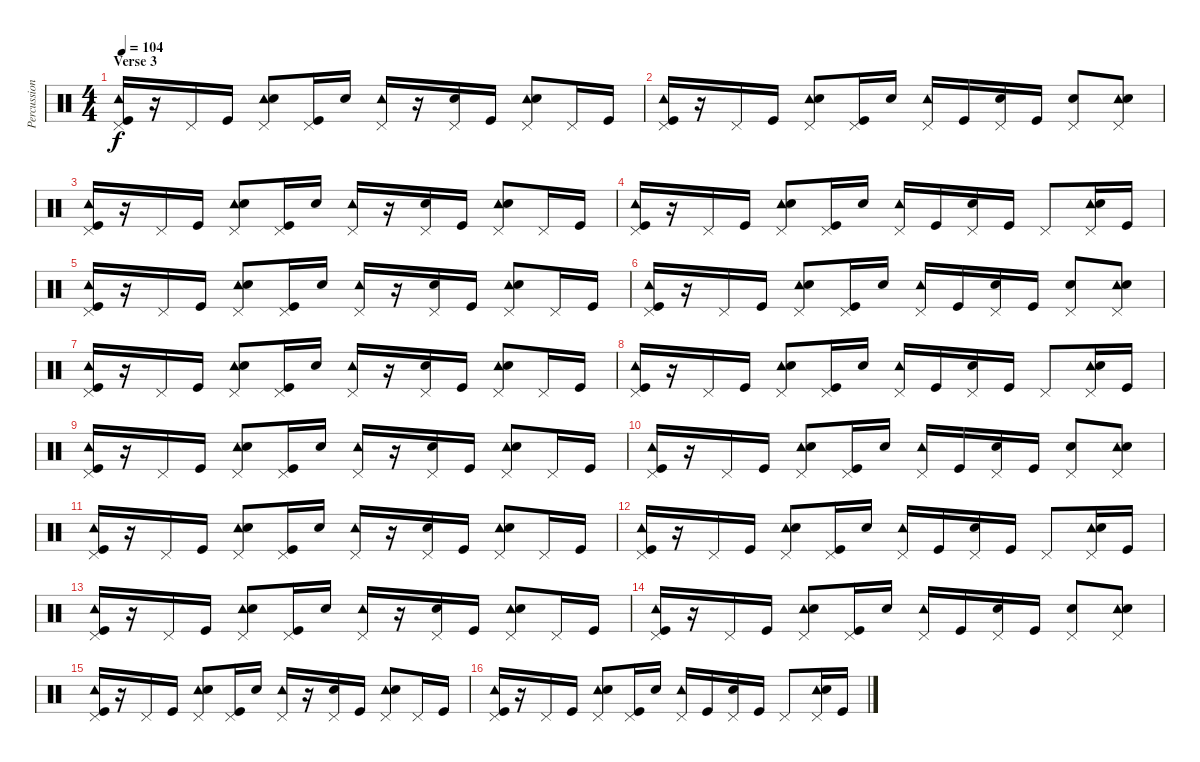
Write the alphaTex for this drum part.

\track ("Percussion" "Percussion") {instrument percussion}
\staff {score}
\articulation defaults
\ts (4 4)
\section ("" "Verse 3")
\tempo 104
\clef neutral
\ks c
("Tambourine (hit)" "Pedal Hi-Hat (hit)" "Kick (hit)").16{dy f} r.16 "Pedal Hi-Hat (hit)".16 "Kick (hit)".16 ("Tambourine (hit)" "Pedal Hi-Hat (hit)" "Snare (hit) 2").8 ("Pedal Hi-Hat (hit)" "Kick (hit)").16 "Snare (hit) 2".16 ("Tambourine (hit)" "Pedal Hi-Hat (hit)").16 r.16 ("Pedal Hi-Hat (hit)" "Snare (hit) 2").16 "Kick (hit)".16 ("Tambourine (hit)" "Pedal Hi-Hat (hit)" "Snare (hit) 2").8 "Pedal Hi-Hat (hit)".16 "Kick (hit)".16 |
("Tambourine (hit)" "Pedal Hi-Hat (hit)" "Kick (hit)").16 r.16 "Pedal Hi-Hat (hit)".16 "Kick (hit)".16 ("Tambourine (hit)" "Pedal Hi-Hat (hit)" "Snare (hit) 2").8 ("Pedal Hi-Hat (hit)" "Kick (hit)").16 "Snare (hit) 2".16 ("Tambourine (hit)" "Pedal Hi-Hat (hit)").16 "Kick (hit)".16 ("Pedal Hi-Hat (hit)" "Snare (hit) 2").16 "Kick (hit)".16 ("Pedal Hi-Hat (hit)" "Snare (hit) 2").8 ("Tambourine (hit)" "Pedal Hi-Hat (hit)" "Snare (hit) 2").8 |
("Tambourine (hit)" "Pedal Hi-Hat (hit)" "Kick (hit)").16 r.16 "Pedal Hi-Hat (hit)".16 "Kick (hit)".16 ("Tambourine (hit)" "Pedal Hi-Hat (hit)" "Snare (hit) 2").8 ("Pedal Hi-Hat (hit)" "Kick (hit)").16 "Snare (hit) 2".16 ("Tambourine (hit)" "Pedal Hi-Hat (hit)").16 r.16 ("Pedal Hi-Hat (hit)" "Snare (hit) 2").16 "Kick (hit)".16 ("Tambourine (hit)" "Pedal Hi-Hat (hit)" "Snare (hit) 2").8 "Pedal Hi-Hat (hit)".16 "Kick (hit)".16 |
("Tambourine (hit)" "Pedal Hi-Hat (hit)" "Kick (hit)").16 r.16 "Pedal Hi-Hat (hit)".16 "Kick (hit)".16 ("Tambourine (hit)" "Pedal Hi-Hat (hit)" "Snare (hit) 2").8 ("Pedal Hi-Hat (hit)" "Kick (hit)").16 "Snare (hit) 2".16 ("Tambourine (hit)" "Pedal Hi-Hat (hit)").16 "Kick (hit)".16 ("Pedal Hi-Hat (hit)" "Snare (hit) 2").16 "Kick (hit)".16 "Pedal Hi-Hat (hit)".8 ("Tambourine (hit)" "Pedal Hi-Hat (hit)" "Snare (hit) 2").16 "Kick (hit)".16 |
("Tambourine (hit)" "Pedal Hi-Hat (hit)" "Kick (hit)").16 r.16 "Pedal Hi-Hat (hit)".16 "Kick (hit)".16 ("Tambourine (hit)" "Pedal Hi-Hat (hit)" "Snare (hit) 2").8 ("Pedal Hi-Hat (hit)" "Kick (hit)").16 "Snare (hit) 2".16 ("Tambourine (hit)" "Pedal Hi-Hat (hit)").16 r.16 ("Pedal Hi-Hat (hit)" "Snare (hit) 2").16 "Kick (hit)".16 ("Tambourine (hit)" "Pedal Hi-Hat (hit)" "Snare (hit) 2").8 "Pedal Hi-Hat (hit)".16 "Kick (hit)".16 |
("Tambourine (hit)" "Pedal Hi-Hat (hit)" "Kick (hit)").16 r.16 "Pedal Hi-Hat (hit)".16 "Kick (hit)".16 ("Tambourine (hit)" "Pedal Hi-Hat (hit)" "Snare (hit) 2").8 ("Pedal Hi-Hat (hit)" "Kick (hit)").16 "Snare (hit) 2".16 ("Tambourine (hit)" "Pedal Hi-Hat (hit)").16 "Kick (hit)".16 ("Pedal Hi-Hat (hit)" "Snare (hit) 2").16 "Kick (hit)".16 ("Pedal Hi-Hat (hit)" "Snare (hit) 2").8 ("Tambourine (hit)" "Pedal Hi-Hat (hit)" "Snare (hit) 2").8 |
("Tambourine (hit)" "Pedal Hi-Hat (hit)" "Kick (hit)").16 r.16 "Pedal Hi-Hat (hit)".16 "Kick (hit)".16 ("Tambourine (hit)" "Pedal Hi-Hat (hit)" "Snare (hit) 2").8 ("Pedal Hi-Hat (hit)" "Kick (hit)").16 "Snare (hit) 2".16 ("Tambourine (hit)" "Pedal Hi-Hat (hit)").16 r.16 ("Pedal Hi-Hat (hit)" "Snare (hit) 2").16 "Kick (hit)".16 ("Tambourine (hit)" "Pedal Hi-Hat (hit)" "Snare (hit) 2").8 "Pedal Hi-Hat (hit)".16 "Kick (hit)".16 |
("Tambourine (hit)" "Pedal Hi-Hat (hit)" "Kick (hit)").16 r.16 "Pedal Hi-Hat (hit)".16 "Kick (hit)".16 ("Tambourine (hit)" "Pedal Hi-Hat (hit)" "Snare (hit) 2").8 ("Pedal Hi-Hat (hit)" "Kick (hit)").16 "Snare (hit) 2".16 ("Tambourine (hit)" "Pedal Hi-Hat (hit)").16 "Kick (hit)".16 ("Pedal Hi-Hat (hit)" "Snare (hit) 2").16 "Kick (hit)".16 "Pedal Hi-Hat (hit)".8 ("Tambourine (hit)" "Pedal Hi-Hat (hit)" "Snare (hit) 2").16 "Kick (hit)".16 |
("Tambourine (hit)" "Pedal Hi-Hat (hit)" "Kick (hit)").16 r.16 "Pedal Hi-Hat (hit)".16 "Kick (hit)".16 ("Tambourine (hit)" "Pedal Hi-Hat (hit)" "Snare (hit) 2").8 ("Pedal Hi-Hat (hit)" "Kick (hit)").16 "Snare (hit) 2".16 ("Tambourine (hit)" "Pedal Hi-Hat (hit)").16 r.16 ("Pedal Hi-Hat (hit)" "Snare (hit) 2").16 "Kick (hit)".16 ("Tambourine (hit)" "Pedal Hi-Hat (hit)" "Snare (hit) 2").8 "Pedal Hi-Hat (hit)".16 "Kick (hit)".16 |
("Tambourine (hit)" "Pedal Hi-Hat (hit)" "Kick (hit)").16 r.16 "Pedal Hi-Hat (hit)".16 "Kick (hit)".16 ("Tambourine (hit)" "Pedal Hi-Hat (hit)" "Snare (hit) 2").8 ("Pedal Hi-Hat (hit)" "Kick (hit)").16 "Snare (hit) 2".16 ("Tambourine (hit)" "Pedal Hi-Hat (hit)").16 "Kick (hit)".16 ("Pedal Hi-Hat (hit)" "Snare (hit) 2").16 "Kick (hit)".16 ("Pedal Hi-Hat (hit)" "Snare (hit) 2").8 ("Tambourine (hit)" "Pedal Hi-Hat (hit)" "Snare (hit) 2").8 |
("Tambourine (hit)" "Pedal Hi-Hat (hit)" "Kick (hit)").16 r.16 "Pedal Hi-Hat (hit)".16 "Kick (hit)".16 ("Tambourine (hit)" "Pedal Hi-Hat (hit)" "Snare (hit) 2").8 ("Pedal Hi-Hat (hit)" "Kick (hit)").16 "Snare (hit) 2".16 ("Tambourine (hit)" "Pedal Hi-Hat (hit)").16 r.16 ("Pedal Hi-Hat (hit)" "Snare (hit) 2").16 "Kick (hit)".16 ("Tambourine (hit)" "Pedal Hi-Hat (hit)" "Snare (hit) 2").8 "Pedal Hi-Hat (hit)".16 "Kick (hit)".16 |
("Tambourine (hit)" "Pedal Hi-Hat (hit)" "Kick (hit)").16 r.16 "Pedal Hi-Hat (hit)".16 "Kick (hit)".16 ("Tambourine (hit)" "Pedal Hi-Hat (hit)" "Snare (hit) 2").8 ("Pedal Hi-Hat (hit)" "Kick (hit)").16 "Snare (hit) 2".16 ("Tambourine (hit)" "Pedal Hi-Hat (hit)").16 "Kick (hit)".16 ("Pedal Hi-Hat (hit)" "Snare (hit) 2").16 "Kick (hit)".16 "Pedal Hi-Hat (hit)".8 ("Tambourine (hit)" "Pedal Hi-Hat (hit)" "Snare (hit) 2").16 "Kick (hit)".16 |
("Tambourine (hit)" "Pedal Hi-Hat (hit)" "Kick (hit)").16 r.16 "Pedal Hi-Hat (hit)".16 "Kick (hit)".16 ("Tambourine (hit)" "Pedal Hi-Hat (hit)" "Snare (hit) 2").8 ("Pedal Hi-Hat (hit)" "Kick (hit)").16 "Snare (hit) 2".16 ("Tambourine (hit)" "Pedal Hi-Hat (hit)").16 r.16 ("Pedal Hi-Hat (hit)" "Snare (hit) 2").16 "Kick (hit)".16 ("Tambourine (hit)" "Pedal Hi-Hat (hit)" "Snare (hit) 2").8 "Pedal Hi-Hat (hit)".16 "Kick (hit)".16 |
("Tambourine (hit)" "Pedal Hi-Hat (hit)" "Kick (hit)").16 r.16 "Pedal Hi-Hat (hit)".16 "Kick (hit)".16 ("Tambourine (hit)" "Pedal Hi-Hat (hit)" "Snare (hit) 2").8 ("Pedal Hi-Hat (hit)" "Kick (hit)").16 "Snare (hit) 2".16 ("Tambourine (hit)" "Pedal Hi-Hat (hit)").16 "Kick (hit)".16 ("Pedal Hi-Hat (hit)" "Snare (hit) 2").16 "Kick (hit)".16 ("Pedal Hi-Hat (hit)" "Snare (hit) 2").8 ("Tambourine (hit)" "Pedal Hi-Hat (hit)" "Snare (hit) 2").8 |
("Tambourine (hit)" "Pedal Hi-Hat (hit)" "Kick (hit)").16 r.16 "Pedal Hi-Hat (hit)".16 "Kick (hit)".16 ("Tambourine (hit)" "Pedal Hi-Hat (hit)" "Snare (hit) 2").8 ("Pedal Hi-Hat (hit)" "Kick (hit)").16 "Snare (hit) 2".16 ("Tambourine (hit)" "Pedal Hi-Hat (hit)").16 r.16 ("Pedal Hi-Hat (hit)" "Snare (hit) 2").16 "Kick (hit)".16 ("Tambourine (hit)" "Pedal Hi-Hat (hit)" "Snare (hit) 2").8 "Pedal Hi-Hat (hit)".16 "Kick (hit)".16 |
("Tambourine (hit)" "Pedal Hi-Hat (hit)" "Kick (hit)").16 r.16 "Pedal Hi-Hat (hit)".16 "Kick (hit)".16 ("Tambourine (hit)" "Pedal Hi-Hat (hit)" "Snare (hit) 2").8 ("Pedal Hi-Hat (hit)" "Kick (hit)").16 "Snare (hit) 2".16 ("Tambourine (hit)" "Pedal Hi-Hat (hit)").16 "Kick (hit)".16 ("Pedal Hi-Hat (hit)" "Snare (hit) 2").16 "Kick (hit)".16 "Pedal Hi-Hat (hit)".8 ("Tambourine (hit)" "Pedal Hi-Hat (hit)" "Snare (hit) 2").16 "Kick (hit)".16
